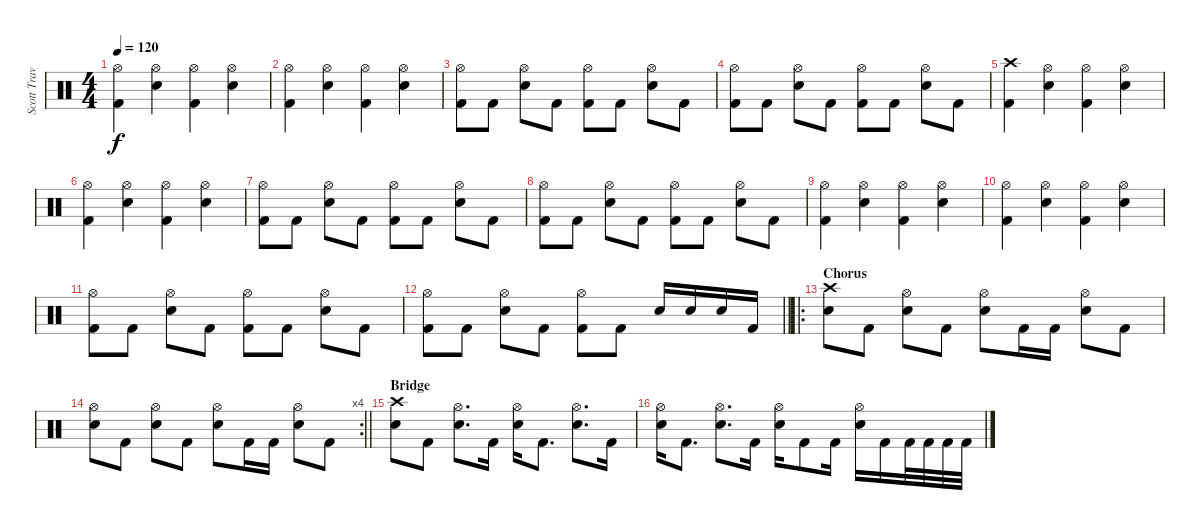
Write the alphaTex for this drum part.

\track ("Scott Travis" "Scott Trav") {instrument percussion}
\staff {score}
\articulation defaults
\ts (4 4)
\tempo 120
\clef neutral
\ks c
("Hi-Hat (open)" "Kick (hit) 2").4{dy f} ("Hi-Hat (open)" "Snare (hit) 2").4 ("Hi-Hat (open)" "Kick (hit) 2").4 ("Hi-Hat (open)" "Snare (hit) 2").4 |
("Hi-Hat (open)" "Kick (hit) 2").4 ("Hi-Hat (open)" "Snare (hit) 2").4 ("Hi-Hat (open)" "Kick (hit) 2").4 ("Hi-Hat (open)" "Snare (hit) 2").4 |
("Hi-Hat (open)" "Kick (hit) 2").8 "Kick (hit) 2".8 ("Hi-Hat (open)" "Snare (hit) 2").8 "Kick (hit) 2".8 ("Hi-Hat (open)" "Kick (hit) 2").8 "Kick (hit) 2".8 ("Hi-Hat (open)" "Snare (hit) 2").8 "Kick (hit) 2".8 |
("Hi-Hat (open)" "Kick (hit) 2").8 "Kick (hit) 2".8 ("Hi-Hat (open)" "Snare (hit) 2").8 "Kick (hit) 2".8 ("Hi-Hat (open)" "Kick (hit) 2").8 "Kick (hit) 2".8 ("Hi-Hat (open)" "Snare (hit) 2").8 "Kick (hit) 2".8 |
("Crash high (hit)" "Kick (hit) 2").4 ("Hi-Hat (open)" "Snare (hit) 2").4 ("Hi-Hat (open)" "Kick (hit) 2").4 ("Hi-Hat (open)" "Snare (hit) 2").4 |
("Hi-Hat (open)" "Kick (hit) 2").4 ("Hi-Hat (open)" "Snare (hit) 2").4 ("Hi-Hat (open)" "Kick (hit) 2").4 ("Hi-Hat (open)" "Snare (hit) 2").4 |
("Hi-Hat (open)" "Kick (hit) 2").8 "Kick (hit) 2".8 ("Hi-Hat (open)" "Snare (hit) 2").8 "Kick (hit) 2".8 ("Hi-Hat (open)" "Kick (hit) 2").8 "Kick (hit) 2".8 ("Hi-Hat (open)" "Snare (hit) 2").8 "Kick (hit) 2".8 |
("Hi-Hat (open)" "Kick (hit) 2").8 "Kick (hit) 2".8 ("Hi-Hat (open)" "Snare (hit) 2").8 "Kick (hit) 2".8 ("Hi-Hat (open)" "Kick (hit) 2").8 "Kick (hit) 2".8 ("Hi-Hat (open)" "Snare (hit) 2").8 "Kick (hit) 2".8 |
("Hi-Hat (open)" "Kick (hit) 2").4 ("Hi-Hat (open)" "Snare (hit) 2").4 ("Hi-Hat (open)" "Kick (hit) 2").4 ("Hi-Hat (open)" "Snare (hit) 2").4 |
("Hi-Hat (open)" "Kick (hit) 2").4 ("Hi-Hat (open)" "Snare (hit) 2").4 ("Hi-Hat (open)" "Kick (hit) 2").4 ("Hi-Hat (open)" "Snare (hit) 2").4 |
("Hi-Hat (open)" "Kick (hit) 2").8 "Kick (hit) 2".8 ("Hi-Hat (open)" "Snare (hit) 2").8 "Kick (hit) 2".8 ("Hi-Hat (open)" "Kick (hit) 2").8 "Kick (hit) 2".8 ("Hi-Hat (open)" "Snare (hit) 2").8 "Kick (hit) 2".8 |
\barLineRight lightlight
("Hi-Hat (open)" "Kick (hit) 2").8 "Kick (hit) 2".8 ("Hi-Hat (open)" "Snare (hit) 2").8 "Kick (hit) 2".8 ("Hi-Hat (open)" "Kick (hit) 2").8 "Kick (hit) 2".8 "Snare (hit) 2".16 "Snare (hit) 2".16 "Snare (hit) 2".16 "Kick (hit) 2".16 |
\ro
\section ("" "Chorus")
("Crash high (hit)" "Snare (hit) 2").8 "Kick (hit) 2".8 ("Hi-Hat (open)" "Snare (hit) 2").8 "Kick (hit) 2".8 ("Hi-Hat (open)" "Snare (hit) 2").8 "Kick (hit) 2".16 "Kick (hit) 2".16 ("Hi-Hat (open)" "Snare (hit) 2").8 "Kick (hit) 2".8 |
\rc 4
\barLineRight lightlight
("Hi-Hat (open)" "Snare (hit) 2").8 "Kick (hit) 2".8 ("Hi-Hat (open)" "Snare (hit) 2").8 "Kick (hit) 2".8 ("Hi-Hat (open)" "Snare (hit) 2").8 "Kick (hit) 2".16 "Kick (hit) 2".16 ("Hi-Hat (open)" "Snare (hit) 2").8 "Kick (hit) 2".8 |
\section ("" "Bridge")
("Crash high (hit)" "Snare (hit) 2").8 "Kick (hit) 2".8 ("Hi-Hat (open)" "Snare (hit) 2").8{d} "Kick (hit) 2".16 ("Hi-Hat (open)" "Snare (hit) 2").16 "Kick (hit) 2".8{d} ("Hi-Hat (open)" "Snare (hit) 2").8{d} "Kick (hit) 2".16 |
("Hi-Hat (open)" "Snare (hit) 2").16 "Kick (hit) 2".8{d} ("Hi-Hat (open)" "Snare (hit) 2").8{d} "Kick (hit) 2".16 ("Hi-Hat (open)" "Snare (hit) 2").16 "Kick (hit) 2".8 "Kick (hit) 2".16 ("Hi-Hat (open)" "Snare (hit) 2").16 "Kick (hit) 2".16 "Kick (hit) 2".32 "Kick (hit) 2".32 "Kick (hit) 2".32 "Kick (hit) 2".32
